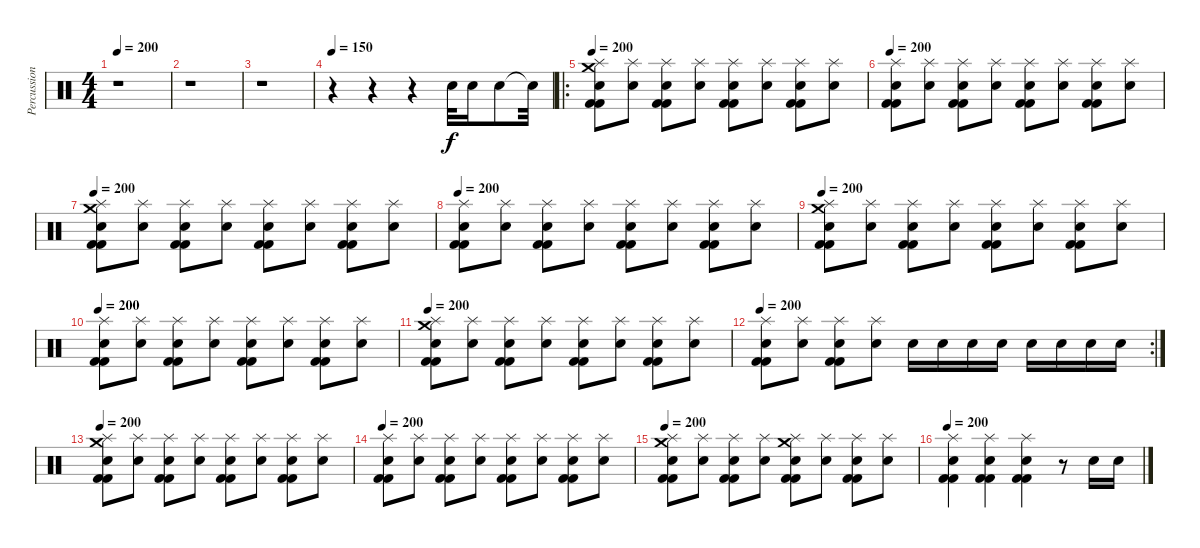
\track ("Percussions" "Percussion") {instrument percussion}
\staff {score}
\articulation defaults
\ts (4 4)
\tempo 200
\clef neutral
\ks c
r.1{dy f} |
r.1 |
r.1 |
\tempo 150
r.4 r.4 r.4 "Snare (hit) 2".32 "Snare (hit) 2".16 "Electric Snare (hit)".8 "Snare (hit)"{t}.32 |
\ro
\tempo 200
("Kick (hit) 2" "Kick (hit) 2" "Snare (hit) 2" "Crash medium (hit)" "Splash (hit)").8 ("Snare (hit) 2" "Splash (hit)").8 ("Kick (hit) 2" "Kick (hit) 2" "Snare (hit) 2" "Splash (hit)").8 ("Snare (hit) 2" "Splash (hit)").8 ("Kick (hit) 2" "Kick (hit) 2" "Snare (hit) 2" "Splash (hit)").8 ("Snare (hit) 2" "Splash (hit)").8 ("Kick (hit) 2" "Kick (hit) 2" "Snare (hit) 2" "Splash (hit)").8 ("Snare (hit) 2" "Splash (hit)").8 |
\tempo 200
("Kick (hit) 2" "Kick (hit) 2" "Snare (hit) 2" "Splash (hit)").8 ("Snare (hit) 2" "Splash (hit)").8 ("Kick (hit) 2" "Kick (hit) 2" "Snare (hit) 2" "Splash (hit)").8 ("Snare (hit) 2" "Splash (hit)").8 ("Kick (hit) 2" "Kick (hit) 2" "Snare (hit) 2" "Splash (hit)").8 ("Snare (hit) 2" "Splash (hit)").8 ("Kick (hit) 2" "Kick (hit) 2" "Snare (hit) 2" "Splash (hit)").8 ("Snare (hit) 2" "Splash (hit)").8 |
\tempo 200
("Kick (hit) 2" "Kick (hit) 2" "Snare (hit) 2" "Crash medium (hit)" "Splash (hit)").8 ("Snare (hit) 2" "Splash (hit)").8 ("Kick (hit) 2" "Kick (hit) 2" "Snare (hit) 2" "Splash (hit)").8 ("Snare (hit) 2" "Splash (hit)").8 ("Kick (hit) 2" "Kick (hit) 2" "Snare (hit) 2" "Splash (hit)").8 ("Snare (hit) 2" "Splash (hit)").8 ("Kick (hit) 2" "Kick (hit) 2" "Snare (hit) 2" "Splash (hit)").8 ("Snare (hit) 2" "Splash (hit)").8 |
\tempo 200
("Kick (hit) 2" "Kick (hit) 2" "Snare (hit) 2" "Splash (hit)").8 ("Snare (hit) 2" "Splash (hit)").8 ("Kick (hit) 2" "Kick (hit) 2" "Snare (hit) 2" "Splash (hit)").8 ("Snare (hit) 2" "Splash (hit)").8 ("Kick (hit) 2" "Kick (hit) 2" "Snare (hit) 2" "Splash (hit)").8 ("Snare (hit) 2" "Splash (hit)").8 ("Kick (hit) 2" "Kick (hit) 2" "Snare (hit) 2" "Splash (hit)").8 ("Snare (hit) 2" "Splash (hit)").8 |
\tempo 200
("Kick (hit) 2" "Kick (hit) 2" "Snare (hit) 2" "Crash medium (hit)" "Splash (hit)").8 ("Snare (hit) 2" "Splash (hit)").8 ("Kick (hit) 2" "Kick (hit) 2" "Snare (hit) 2" "Splash (hit)").8 ("Snare (hit) 2" "Splash (hit)").8 ("Kick (hit) 2" "Kick (hit) 2" "Snare (hit) 2" "Splash (hit)").8 ("Snare (hit) 2" "Splash (hit)").8 ("Kick (hit) 2" "Kick (hit) 2" "Snare (hit) 2" "Splash (hit)").8 ("Snare (hit) 2" "Splash (hit)").8 |
\tempo 200
("Kick (hit) 2" "Kick (hit) 2" "Snare (hit) 2" "Splash (hit)").8 ("Snare (hit) 2" "Splash (hit)").8 ("Kick (hit) 2" "Kick (hit) 2" "Snare (hit) 2" "Splash (hit)").8 ("Snare (hit) 2" "Splash (hit)").8 ("Kick (hit) 2" "Kick (hit) 2" "Snare (hit) 2" "Splash (hit)").8 ("Snare (hit) 2" "Splash (hit)").8 ("Kick (hit) 2" "Kick (hit) 2" "Snare (hit) 2" "Splash (hit)").8 ("Snare (hit) 2" "Splash (hit)").8 |
\tempo 200
("Kick (hit) 2" "Kick (hit) 2" "Snare (hit) 2" "Crash medium (hit)" "Splash (hit)").8 ("Snare (hit) 2" "Splash (hit)").8 ("Kick (hit) 2" "Kick (hit) 2" "Snare (hit) 2" "Splash (hit)").8 ("Snare (hit) 2" "Splash (hit)").8 ("Kick (hit) 2" "Kick (hit) 2" "Snare (hit) 2" "Splash (hit)").8 ("Snare (hit) 2" "Splash (hit)").8 ("Kick (hit) 2" "Kick (hit) 2" "Snare (hit) 2" "Splash (hit)").8 ("Snare (hit) 2" "Splash (hit)").8 |
\rc 2
\tempo 200
("Kick (hit) 2" "Kick (hit) 2" "Snare (hit) 2" "Splash (hit)").8 ("Snare (hit) 2" "Splash (hit)").8 ("Kick (hit) 2" "Kick (hit) 2" "Snare (hit) 2" "Splash (hit)").8 ("Snare (hit) 2" "Splash (hit)").8 "Snare (hit) 2".16 "Snare (hit) 2".16 "Snare (hit) 2".16 "Snare (hit) 2".16 "Snare (hit) 2".16 "Snare (hit) 2".16 "Snare (hit) 2".16 "Snare (hit) 2".16 |
\tempo 200
("Kick (hit) 2" "Kick (hit) 2" "Snare (hit) 2" "Crash medium (hit)" "Splash (hit)").8 ("Snare (hit) 2" "Splash (hit)").8 ("Kick (hit) 2" "Kick (hit) 2" "Snare (hit) 2" "Splash (hit)").8 ("Snare (hit) 2" "Splash (hit)").8 ("Kick (hit) 2" "Kick (hit) 2" "Snare (hit) 2" "Splash (hit)").8 ("Snare (hit) 2" "Splash (hit)").8 ("Kick (hit) 2" "Kick (hit) 2" "Snare (hit) 2" "Splash (hit)").8 ("Snare (hit) 2" "Splash (hit)").8 |
\tempo 200
("Kick (hit) 2" "Kick (hit) 2" "Snare (hit) 2" "Splash (hit)").8 ("Snare (hit) 2" "Splash (hit)").8 ("Kick (hit) 2" "Kick (hit) 2" "Snare (hit) 2" "Splash (hit)").8 ("Snare (hit) 2" "Splash (hit)").8 ("Kick (hit) 2" "Kick (hit) 2" "Snare (hit) 2" "Splash (hit)").8 ("Snare (hit) 2" "Splash (hit)").8 ("Kick (hit) 2" "Kick (hit) 2" "Snare (hit) 2" "Splash (hit)").8 ("Snare (hit) 2" "Splash (hit)").8 |
\tempo 200
("Kick (hit) 2" "Kick (hit) 2" "Snare (hit) 2" "Crash medium (hit)" "Splash (hit)").8 ("Snare (hit) 2" "Splash (hit)").8 ("Kick (hit) 2" "Kick (hit) 2" "Snare (hit) 2" "Splash (hit)").8 ("Snare (hit) 2" "Splash (hit)").8 ("Kick (hit) 2" "Kick (hit) 2" "Snare (hit) 2" "Crash medium (hit)" "Splash (hit)").8 ("Snare (hit) 2" "Splash (hit)").8 ("Kick (hit) 2" "Kick (hit) 2" "Snare (hit) 2" "Splash (hit)").8 ("Snare (hit) 2" "Splash (hit)").8 |
\tempo 200
("Kick (hit) 2" "Kick (hit) 2" "Snare (hit) 2" "Splash (hit)").4 ("Kick (hit) 2" "Kick (hit) 2" "Snare (hit) 2" "Splash (hit)").4 ("Kick (hit) 2" "Kick (hit) 2" "Snare (hit) 2" "Splash (hit)").4 r.8 "Snare (hit) 2".16 "Snare (hit) 2".16
